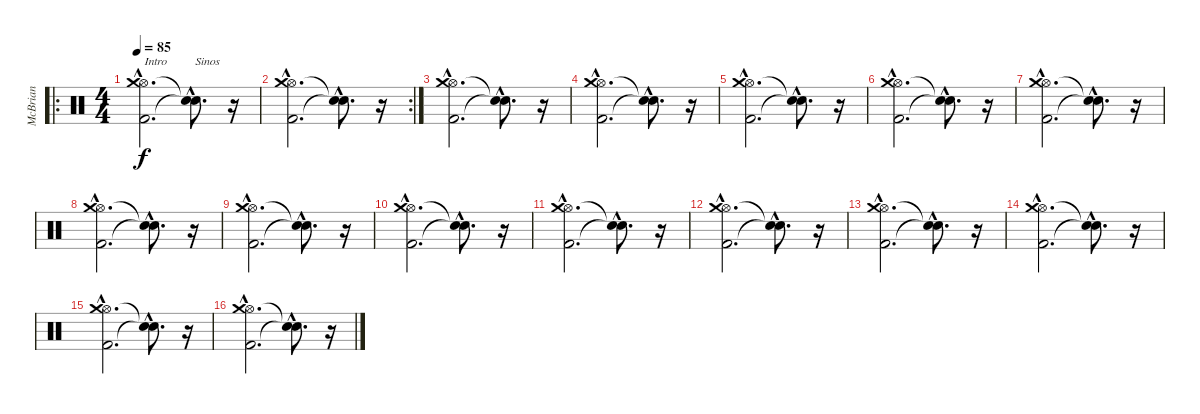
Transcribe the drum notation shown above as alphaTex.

\track ("McBrian" "McBrian") {instrument percussion}
\staff {score}
\articulation defaults
\ro
\ts (4 4)
\tempo 85
\clef neutral
\ks c
("Kick (hit) 2"{hac} "Hi-Hat (open)"{hac} "Crash medium (hit)"{hac}).2{d txt "Intro" dy f} ("Snare (hit)"{hac t} "Snare (hit)"{hac t}).8{d txt "Sinos"} r.16 |
\rc 2
("Kick (hit) 2"{hac} "Hi-Hat (open)"{hac} "Crash medium (hit)"{hac}).2{d} ("Snare (hit)"{hac t} "Snare (hit)"{hac t}).8{d} r.16 |
("Kick (hit) 2"{hac} "Hi-Hat (open)"{hac} "Crash medium (hit)"{hac}).2{d} ("Snare (hit)"{hac t} "Snare (hit)"{hac t}).8{d} r.16 |
("Kick (hit) 2"{hac} "Hi-Hat (open)"{hac} "Crash medium (hit)"{hac}).2{d} ("Snare (hit)"{hac t} "Snare (hit)"{hac t}).8{d} r.16 |
("Kick (hit) 2"{hac} "Hi-Hat (open)"{hac} "Crash medium (hit)"{hac}).2{d} ("Snare (hit)"{hac t} "Snare (hit)"{hac t}).8{d} r.16 |
("Kick (hit) 2"{hac} "Hi-Hat (open)"{hac} "Crash medium (hit)"{hac}).2{d} ("Snare (hit)"{hac t} "Snare (hit)"{hac t}).8{d} r.16 |
("Kick (hit) 2"{hac} "Hi-Hat (open)"{hac} "Crash medium (hit)"{hac}).2{d} ("Snare (hit)"{hac t} "Snare (hit)"{hac t}).8{d} r.16 |
("Kick (hit) 2"{hac} "Hi-Hat (open)"{hac} "Crash medium (hit)"{hac}).2{d} ("Snare (hit)"{hac t} "Snare (hit)"{hac t}).8{d} r.16 |
("Kick (hit) 2"{hac} "Hi-Hat (open)"{hac} "Crash medium (hit)"{hac}).2{d} ("Snare (hit)"{hac t} "Snare (hit)"{hac t}).8{d} r.16 |
("Kick (hit) 2"{hac} "Hi-Hat (open)"{hac} "Crash medium (hit)"{hac}).2{d} ("Snare (hit)"{hac t} "Snare (hit)"{hac t}).8{d} r.16 |
("Kick (hit) 2"{hac} "Hi-Hat (open)"{hac} "Crash medium (hit)"{hac}).2{d} ("Snare (hit)"{hac t} "Snare (hit)"{hac t}).8{d} r.16 |
("Kick (hit) 2"{hac} "Hi-Hat (open)"{hac} "Crash medium (hit)"{hac}).2{d} ("Snare (hit)"{hac t} "Snare (hit)"{hac t}).8{d} r.16 |
("Kick (hit) 2"{hac} "Hi-Hat (open)"{hac} "Crash medium (hit)"{hac}).2{d} ("Snare (hit)"{hac t} "Snare (hit)"{hac t}).8{d} r.16 |
("Kick (hit) 2"{hac} "Hi-Hat (open)"{hac} "Crash medium (hit)"{hac}).2{d} ("Snare (hit)"{hac t} "Snare (hit)"{hac t}).8{d} r.16 |
("Kick (hit) 2"{hac} "Hi-Hat (open)"{hac} "Crash medium (hit)"{hac}).2{d} ("Snare (hit)"{hac t} "Snare (hit)"{hac t}).8{d} r.16 |
("Kick (hit) 2"{hac} "Hi-Hat (open)"{hac} "Crash medium (hit)"{hac}).2{d} ("Snare (hit)"{hac t} "Snare (hit)"{hac t}).8{d} r.16
